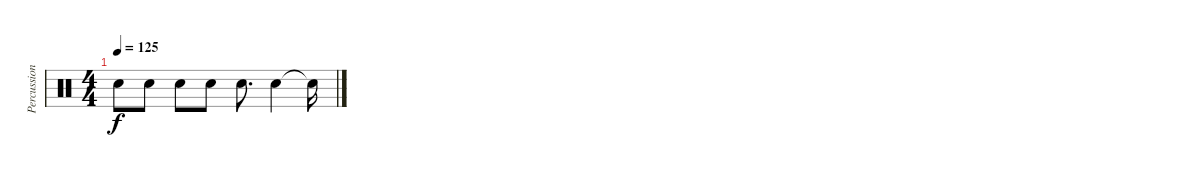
\track ("Percussion" "Percussion") {instrument percussion}
\staff {score}
\articulation defaults
\ts (4 4)
\tempo 125
\clef neutral
\ks c "Snare (hit) 2".8{dy f} "Snare (hit) 2".8 "Snare (hit) 2".8 "Snare (hit) 2".8 "Snare (hit) 2".8{d} "Snare (hit) 2".4 "Snare (hit) 2"{t}.16
